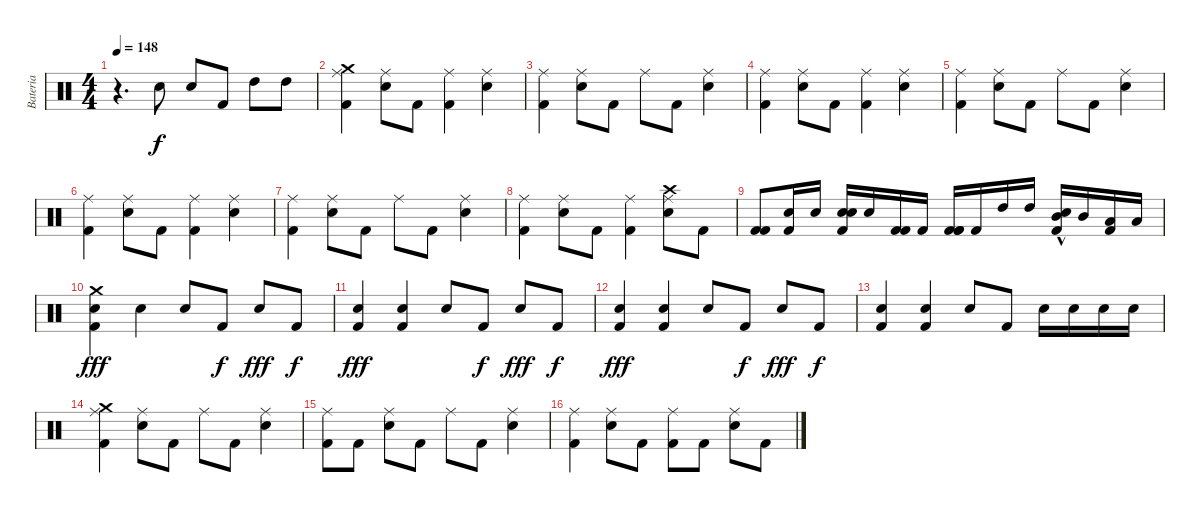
\track ("Bateria" "Bateria") {instrument percussion}
\staff {score}
\articulation defaults
\ts (4 4)
\tempo 148
\clef neutral
\ks c
r.4{d dy f} "Snare (hit) 2".8 "Electric Snare (hit)".8 "Kick (hit) 2".8 "High Tom (hit)".8 "High Tom (hit)".8 |
("Kick (hit) 2" "Crash medium (hit)" "Ride (middle)").4 ("Electric Snare (hit)" "Ride (middle)").8 "Kick (hit) 2".8 ("Kick (hit) 2" "Ride (middle)").4 ("Electric Snare (hit)" "Ride (middle)").4 |
("Kick (hit) 2" "Ride (middle)").4 ("Electric Snare (hit)" "Ride (middle)").8 "Kick (hit) 2".8 "Ride (middle)".8 "Kick (hit) 2".8 ("Electric Snare (hit)" "Ride (middle)").4 |
("Kick (hit) 2" "Ride (middle)").4 ("Electric Snare (hit)" "Ride (middle)").8 "Kick (hit) 2".8 ("Kick (hit) 2" "Ride (middle)").4 ("Electric Snare (hit)" "Ride (middle)").4 |
("Kick (hit) 2" "Ride (middle)").4 ("Electric Snare (hit)" "Ride (middle)").8 "Kick (hit) 2".8 "Ride (middle)".8 "Kick (hit) 2".8 ("Electric Snare (hit)" "Ride (middle)").4 |
("Kick (hit) 2" "Ride (middle)").4 ("Electric Snare (hit)" "Ride (middle)").8 "Kick (hit) 2".8 ("Kick (hit) 2" "Ride (middle)").4 ("Electric Snare (hit)" "Ride (middle)").4 |
("Kick (hit) 2" "Ride (middle)").4 ("Electric Snare (hit)" "Ride (middle)").8 "Kick (hit) 2".8 "Ride (middle)".8 "Kick (hit) 2".8 ("Electric Snare (hit)" "Ride (middle)").4 |
("Kick (hit) 2" "Ride (middle)").4 ("Electric Snare (hit)" "Ride (middle)").8 "Kick (hit) 2".8 ("Kick (hit) 2" "Ride (middle)").4 ("Electric Snare (hit)" "Ride (middle)" "Crash high (hit)").8 "Kick (hit) 2".8 |
("Kick (hit) 2" "Kick (hit) 2").8 ("Electric Snare (hit)" "Kick (hit) 2").16 "Electric Snare (hit)".16 ("Snare (hit) 2" "Snare (hit) 2" "Kick (hit) 2").16 "Snare (hit) 2".16 ("Kick (hit) 2" "Kick (hit) 2").16 "Kick (hit) 2".16 ("Kick (hit) 2" "Kick (hit) 2" "Kick (hit) 2").16 "Kick (hit) 2".16 "High Tom (hit)".16 "High Tom (hit)".16 ("Snare (hit) 2"{hac} "Mid Tom (hit)" "Kick (hit) 2").16 "Mid Tom (hit)".16 ("Low Tom (hit)" "Kick (hit) 2").16 "Low Tom (hit)".16 |
("Crash medium (hit)" "Electric Snare (hit)" "Kick (hit) 2").4{dy fff} "Electric Snare (hit)".4 "Electric Snare (hit)".8 "Kick (hit) 2".8{dy f} "Electric Snare (hit)".8{dy fff} "Kick (hit) 2".8{dy f} |
("Kick (hit) 2" "Electric Snare (hit)").4{dy fff} ("Electric Snare (hit)" "Kick (hit) 2").4 "Electric Snare (hit)".8 "Kick (hit) 2".8{dy f} "Electric Snare (hit)".8{dy fff} "Kick (hit) 2".8{dy f} |
("Electric Snare (hit)" "Kick (hit) 2").4{dy fff} ("Electric Snare (hit)" "Kick (hit) 2").4 "Electric Snare (hit)".8 "Kick (hit) 2".8{dy f} "Electric Snare (hit)".8{dy fff} "Kick (hit) 2".8{dy f} |
("Electric Snare (hit)" "Kick (hit) 2").4 ("Electric Snare (hit)" "Kick (hit) 2").4 "Electric Snare (hit)".8 "Kick (hit) 2".8 "Electric Snare (hit)".16 "Electric Snare (hit)".16 "Electric Snare (hit)".16 "Electric Snare (hit)".16 |
("Crash medium (hit)" "Kick (hit) 2" "Ride (middle)").4 ("Electric Snare (hit)" "Ride (middle)").8 "Kick (hit) 2".8 "Ride (middle)".8 "Kick (hit) 2".8 ("Electric Snare (hit)" "Ride (middle)").4 |
("Kick (hit) 2" "Ride (middle)").8 "Kick (hit) 2".8 ("Electric Snare (hit)" "Ride (middle)").8 "Kick (hit) 2".8 "Ride (middle)".8 "Kick (hit) 2".8 ("Electric Snare (hit)" "Ride (middle)").4 |
("Kick (hit) 2" "Ride (middle)").4 ("Electric Snare (hit)" "Ride (middle)").8 "Kick (hit) 2".8 ("Kick (hit) 2" "Ride (middle)").8 "Kick (hit) 2".8 ("Electric Snare (hit)" "Ride (middle)").8 "Kick (hit) 2".8
